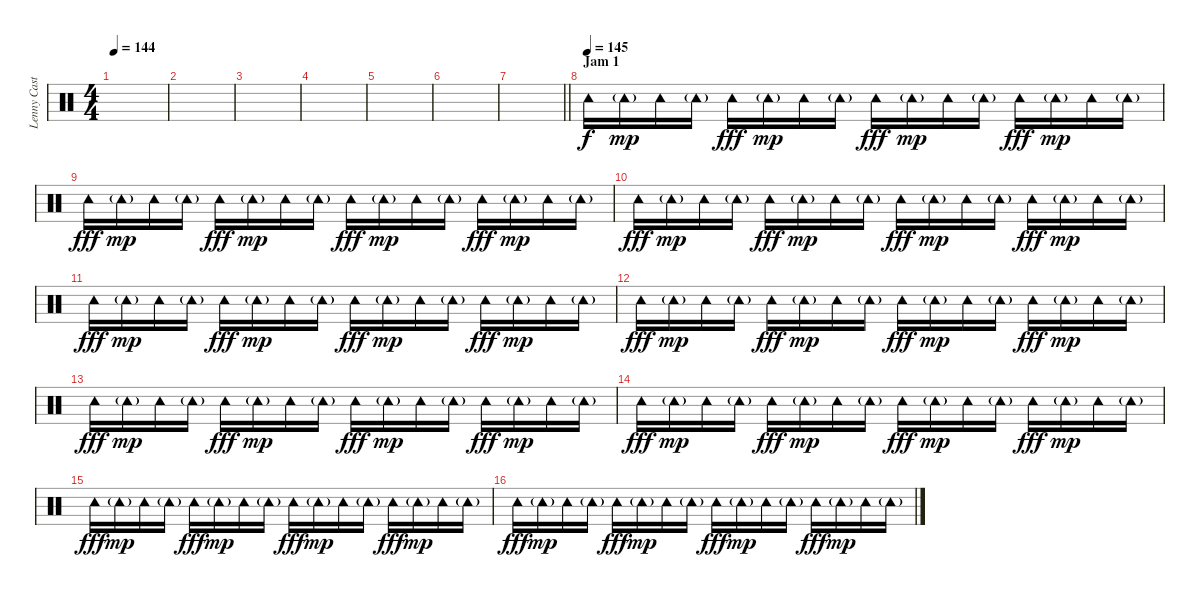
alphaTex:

\track ("Lenny Castro - Percussion" "Lenny Cast") {instrument percussion}
\staff {score}
\articulation defaults
\ts (4 4)
\tempo 144
\clef neutral
\ks c
|
|
|
|
|
|
\barLineRight lightlight
|
\section ("" "Jam 1")
\tempo (145)
"Tambourine (hit)".16 "Tambourine (hit)"{g}.16{dy mp} "Tambourine (hit)".16 "Tambourine (hit)"{g}.16 "Tambourine (hit)".16{dy fff} "Tambourine (hit)"{g}.16{dy mp} "Tambourine (hit)".16 "Tambourine (hit)"{g}.16 "Tambourine (hit)".16{dy fff} "Tambourine (hit)"{g}.16{dy mp} "Tambourine (hit)".16 "Tambourine (hit)"{g}.16 "Tambourine (hit)".16{dy fff} "Tambourine (hit)"{g}.16{dy mp} "Tambourine (hit)".16 "Tambourine (hit)"{g}.16 |
"Tambourine (hit)".16{dy fff} "Tambourine (hit)"{g}.16{dy mp} "Tambourine (hit)".16 "Tambourine (hit)"{g}.16 "Tambourine (hit)".16{dy fff} "Tambourine (hit)"{g}.16{dy mp} "Tambourine (hit)".16 "Tambourine (hit)"{g}.16 "Tambourine (hit)".16{dy fff} "Tambourine (hit)"{g}.16{dy mp} "Tambourine (hit)".16 "Tambourine (hit)"{g}.16 "Tambourine (hit)".16{dy fff} "Tambourine (hit)"{g}.16{dy mp} "Tambourine (hit)".16 "Tambourine (hit)"{g}.16 |
"Tambourine (hit)".16{dy fff} "Tambourine (hit)"{g}.16{dy mp} "Tambourine (hit)".16 "Tambourine (hit)"{g}.16 "Tambourine (hit)".16{dy fff} "Tambourine (hit)"{g}.16{dy mp} "Tambourine (hit)".16 "Tambourine (hit)"{g}.16 "Tambourine (hit)".16{dy fff} "Tambourine (hit)"{g}.16{dy mp} "Tambourine (hit)".16 "Tambourine (hit)"{g}.16 "Tambourine (hit)".16{dy fff} "Tambourine (hit)"{g}.16{dy mp} "Tambourine (hit)".16 "Tambourine (hit)"{g}.16 |
"Tambourine (hit)".16{dy fff} "Tambourine (hit)"{g}.16{dy mp} "Tambourine (hit)".16 "Tambourine (hit)"{g}.16 "Tambourine (hit)".16{dy fff} "Tambourine (hit)"{g}.16{dy mp} "Tambourine (hit)".16 "Tambourine (hit)"{g}.16 "Tambourine (hit)".16{dy fff} "Tambourine (hit)"{g}.16{dy mp} "Tambourine (hit)".16 "Tambourine (hit)"{g}.16 "Tambourine (hit)".16{dy fff} "Tambourine (hit)"{g}.16{dy mp} "Tambourine (hit)".16 "Tambourine (hit)"{g}.16 |
"Tambourine (hit)".16{dy fff} "Tambourine (hit)"{g}.16{dy mp} "Tambourine (hit)".16 "Tambourine (hit)"{g}.16 "Tambourine (hit)".16{dy fff} "Tambourine (hit)"{g}.16{dy mp} "Tambourine (hit)".16 "Tambourine (hit)"{g}.16 "Tambourine (hit)".16{dy fff} "Tambourine (hit)"{g}.16{dy mp} "Tambourine (hit)".16 "Tambourine (hit)"{g}.16 "Tambourine (hit)".16{dy fff} "Tambourine (hit)"{g}.16{dy mp} "Tambourine (hit)".16 "Tambourine (hit)"{g}.16 |
"Tambourine (hit)".16{dy fff} "Tambourine (hit)"{g}.16{dy mp} "Tambourine (hit)".16 "Tambourine (hit)"{g}.16 "Tambourine (hit)".16{dy fff} "Tambourine (hit)"{g}.16{dy mp} "Tambourine (hit)".16 "Tambourine (hit)"{g}.16 "Tambourine (hit)".16{dy fff} "Tambourine (hit)"{g}.16{dy mp} "Tambourine (hit)".16 "Tambourine (hit)"{g}.16 "Tambourine (hit)".16{dy fff} "Tambourine (hit)"{g}.16{dy mp} "Tambourine (hit)".16 "Tambourine (hit)"{g}.16 |
"Tambourine (hit)".16{dy fff} "Tambourine (hit)"{g}.16{dy mp} "Tambourine (hit)".16 "Tambourine (hit)"{g}.16 "Tambourine (hit)".16{dy fff} "Tambourine (hit)"{g}.16{dy mp} "Tambourine (hit)".16 "Tambourine (hit)"{g}.16 "Tambourine (hit)".16{dy fff} "Tambourine (hit)"{g}.16{dy mp} "Tambourine (hit)".16 "Tambourine (hit)"{g}.16 "Tambourine (hit)".16{dy fff} "Tambourine (hit)"{g}.16{dy mp} "Tambourine (hit)".16 "Tambourine (hit)"{g}.16 |
"Tambourine (hit)".16{dy fff} "Tambourine (hit)"{g}.16{dy mp} "Tambourine (hit)".16 "Tambourine (hit)"{g}.16 "Tambourine (hit)".16{dy fff} "Tambourine (hit)"{g}.16{dy mp} "Tambourine (hit)".16 "Tambourine (hit)"{g}.16 "Tambourine (hit)".16{dy fff} "Tambourine (hit)"{g}.16{dy mp} "Tambourine (hit)".16 "Tambourine (hit)"{g}.16 "Tambourine (hit)".16{dy fff} "Tambourine (hit)"{g}.16{dy mp} "Tambourine (hit)".16 "Tambourine (hit)"{g}.16 |
"Tambourine (hit)".16{dy fff} "Tambourine (hit)"{g}.16{dy mp} "Tambourine (hit)".16 "Tambourine (hit)"{g}.16 "Tambourine (hit)".16{dy fff} "Tambourine (hit)"{g}.16{dy mp} "Tambourine (hit)".16 "Tambourine (hit)"{g}.16 "Tambourine (hit)".16{dy fff} "Tambourine (hit)"{g}.16{dy mp} "Tambourine (hit)".16 "Tambourine (hit)"{g}.16 "Tambourine (hit)".16{dy fff} "Tambourine (hit)"{g}.16{dy mp} "Tambourine (hit)".16 "Tambourine (hit)"{g}.16
